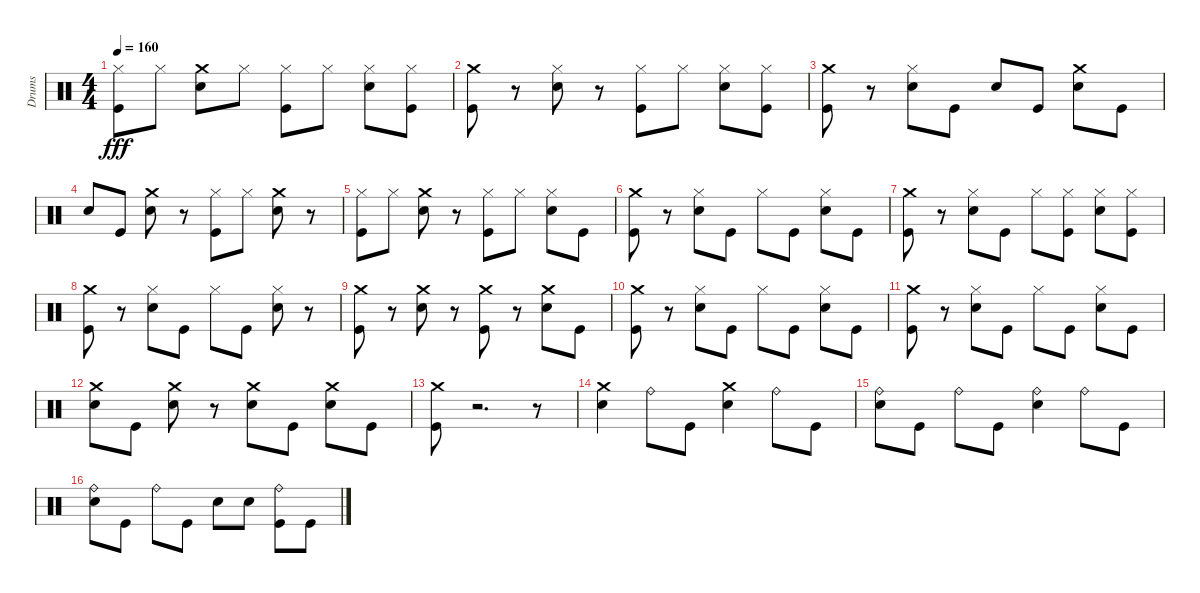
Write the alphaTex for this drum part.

\track ("Drums" "Drums") {instrument percussion}
\staff {score}
\articulation defaults
\ts (4 4)
\tempo 160
\clef neutral
\ks c
("Hi-Hat (closed)" "Kick (hit)").8{dy fff} "Hi-Hat (closed)".8 ("Crash medium (hit)" "Snare (hit) 2").8 "Hi-Hat (closed)".8 ("Kick (hit)" "Hi-Hat (closed)").8 "Hi-Hat (closed)".8 ("Snare (hit) 2" "Hi-Hat (closed)").8 ("Kick (hit)" "Hi-Hat (closed)").8 |
("Crash medium (hit)" "Kick (hit)").8 r.8 ("Snare (hit) 2" "Hi-Hat (closed)").8 r.8 ("Kick (hit)" "Hi-Hat (closed)").8 "Hi-Hat (closed)".8 ("Hi-Hat (closed)" "Snare (hit) 2").8 ("Hi-Hat (closed)" "Kick (hit)").8 |
("Crash medium (hit)" "Kick (hit)").8 r.8 ("Hi-Hat (closed)" "Snare (hit) 2").8 "Kick (hit)".8 "Snare (hit) 2".8 "Kick (hit)".8 ("Crash medium (hit)" "Snare (hit) 2").8 "Kick (hit)".8 |
"Snare (hit) 2".8 "Kick (hit)".8 ("Crash medium (hit)" "Snare (hit) 2").8 r.8 ("Kick (hit)" "Hi-Hat (closed)").8 "Hi-Hat (closed)".8 ("Crash medium (hit)" "Snare (hit) 2").8 r.8 |
("Hi-Hat (closed)" "Kick (hit)").8 "Hi-Hat (closed)".8 ("Crash medium (hit)" "Snare (hit) 2").8 r.8 ("Hi-Hat (closed)" "Kick (hit)").8 "Hi-Hat (closed)".8 ("Snare (hit) 2" "Hi-Hat (closed)").8 "Kick (hit)".8 |
("Crash medium (hit)" "Kick (hit)").8 r.8 ("Hi-Hat (closed)" "Snare (hit) 2").8 "Kick (hit)".8 "Hi-Hat (closed)".8 "Kick (hit)".8 ("Snare (hit) 2" "Hi-Hat (closed)").8 "Kick (hit)".8 |
("Crash medium (hit)" "Kick (hit)").8 r.8 ("Hi-Hat (closed)" "Snare (hit) 2").8 "Kick (hit)".8 "Hi-Hat (closed)".8 ("Hi-Hat (closed)" "Kick (hit)").8 ("Snare (hit) 2" "Hi-Hat (closed)").8 ("Hi-Hat (closed)" "Kick (hit)").8 |
("Crash medium (hit)" "Kick (hit)").8 r.8 ("Hi-Hat (closed)" "Snare (hit) 2").8 "Kick (hit)".8 "Hi-Hat (closed)".8 "Kick (hit)".8 ("Snare (hit) 2" "Hi-Hat (closed)").8 r.8 |
("Kick (hit)" "Crash medium (hit)").8 r.8 ("Snare (hit) 2" "Crash medium (hit)").8 r.8 ("Kick (hit)" "Crash medium (hit)").8 r.8 ("Snare (hit) 2" "Crash medium (hit)").8 "Kick (hit)".8 |
("Crash medium (hit)" "Kick (hit)").8 r.8 ("Hi-Hat (closed)" "Snare (hit) 2").8 "Kick (hit)".8 "Hi-Hat (closed)".8 "Kick (hit)".8 ("Hi-Hat (closed)" "Snare (hit) 2").8 "Kick (hit)".8 |
("Crash medium (hit)" "Kick (hit)").8 r.8 ("Hi-Hat (closed)" "Snare (hit) 2").8 "Kick (hit)".8 "Hi-Hat (closed)".8 "Kick (hit)".8 ("Hi-Hat (closed)" "Snare (hit) 2").8 "Kick (hit)".8 |
("Crash medium (hit)" "Snare (hit) 2").8 "Kick (hit)".8 ("Crash medium (hit)" "Snare (hit) 2").8 r.8 ("Crash medium (hit)" "Snare (hit) 2").8 "Kick (hit)".8 ("Crash medium (hit)" "Snare (hit) 2").8 "Kick (hit)".8 |
("Crash medium (hit)" "Kick (hit)").8 r.2{d} r.8 |
("Snare (hit) 2" "Crash medium (hit)").4 "Ride (bell)".8 "Kick (hit)".8 ("Crash medium (hit)" "Snare (hit) 2").4 "Ride (bell)".8 "Kick (hit)".8 |
("Snare (hit) 2" "Ride (bell)").8 "Kick (hit)".8 "Ride (bell)".8 "Kick (hit)".8 ("Snare (hit) 2" "Ride (bell)").4 "Ride (bell)".8 "Kick (hit)".8 |
("Snare (hit) 2" "Ride (bell)").8 "Kick (hit)".8 "Ride (bell)".8 "Kick (hit)".8 "Snare (hit) 2".8 "Snare (hit) 2".8 ("Kick (hit)" "Ride (bell)").8 "Kick (hit)".8
